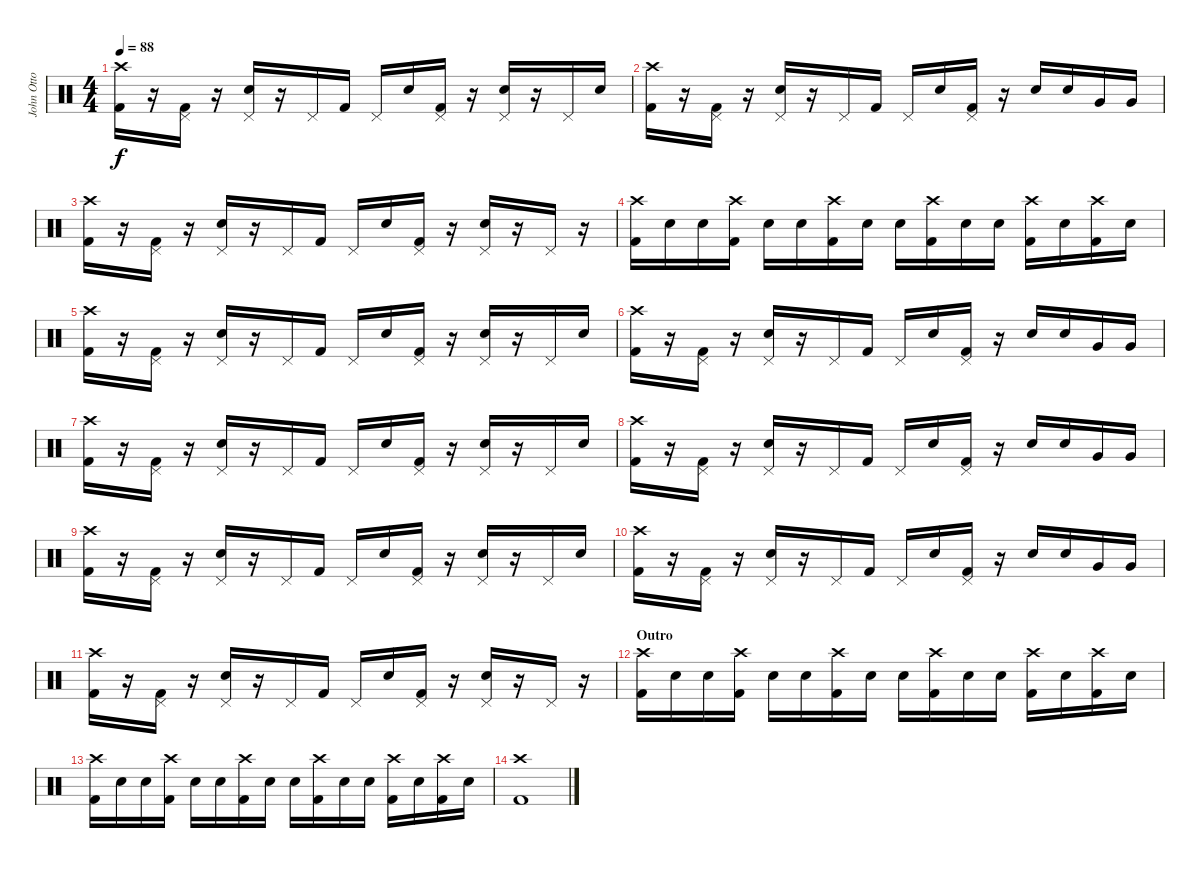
\track ("John Otto" "John Otto") {instrument percussion}
\staff {score}
\articulation defaults
\ts (4 4)
\tempo 88
\clef neutral
\ks c
("Crash high (hit)" "Kick (hit) 2").16{dy f} r.16 ("Pedal Hi-Hat (hit)" "Kick (hit) 2").16 r.16 ("Pedal Hi-Hat (hit)" "Snare (hit) 2").16 r.16 "Pedal Hi-Hat (hit)".16 "Kick (hit) 2".16 "Pedal Hi-Hat (hit)".16 "Snare (hit) 2".16 ("Pedal Hi-Hat (hit)" "Kick (hit) 2").16 r.16 ("Pedal Hi-Hat (hit)" "Snare (hit) 2").16 r.16 "Pedal Hi-Hat (hit)".16 "Electric Snare (hit)".16 |
("Crash high (hit)" "Kick (hit) 2").16 r.16 ("Pedal Hi-Hat (hit)" "Kick (hit) 2").16 r.16 ("Pedal Hi-Hat (hit)" "Snare (hit) 2").16 r.16 "Pedal Hi-Hat (hit)".16 "Kick (hit) 2".16 "Pedal Hi-Hat (hit)".16 "Snare (hit) 2".16 ("Pedal Hi-Hat (hit)" "Kick (hit) 2").16 r.16 "Electric Snare (hit)".16 "Electric Snare (hit)".16 "Very Low Tom (hit)".16 "Very Low Tom (hit)".16 |
("Crash high (hit)" "Kick (hit) 2").16 r.16 ("Pedal Hi-Hat (hit)" "Kick (hit) 2").16 r.16 ("Pedal Hi-Hat (hit)" "Snare (hit) 2").16 r.16 "Pedal Hi-Hat (hit)".16 "Kick (hit) 2".16 "Pedal Hi-Hat (hit)".16 "Snare (hit) 2".16 ("Pedal Hi-Hat (hit)" "Kick (hit) 2").16 r.16 ("Pedal Hi-Hat (hit)" "Snare (hit) 2").16 r.16 "Pedal Hi-Hat (hit)".16 r.16 |
("Crash high (hit)" "Kick (hit) 2").16 "Snare (hit) 2".16 "Snare (hit) 2".16 ("Crash high (hit)" "Kick (hit) 2").16 "Snare (hit) 2".16 "Snare (hit) 2".16 ("Crash high (hit)" "Kick (hit) 2").16 "Snare (hit) 2".16 "Snare (hit) 2".16 ("Crash high (hit)" "Kick (hit) 2").16 "Snare (hit) 2".16 "Snare (hit) 2".16 ("Crash high (hit)" "Kick (hit) 2").16 "Snare (hit) 2".16 ("Crash high (hit)" "Kick (hit) 2").16 "Snare (hit) 2".16 |
("Crash high (hit)" "Kick (hit) 2").16 r.16 ("Pedal Hi-Hat (hit)" "Kick (hit) 2").16 r.16 ("Pedal Hi-Hat (hit)" "Snare (hit) 2").16 r.16 "Pedal Hi-Hat (hit)".16 "Kick (hit) 2".16 "Pedal Hi-Hat (hit)".16 "Snare (hit) 2".16 ("Pedal Hi-Hat (hit)" "Kick (hit) 2").16 r.16 ("Pedal Hi-Hat (hit)" "Snare (hit) 2").16 r.16 "Pedal Hi-Hat (hit)".16 "Electric Snare (hit)".16 |
("Crash high (hit)" "Kick (hit) 2").16 r.16 ("Pedal Hi-Hat (hit)" "Kick (hit) 2").16 r.16 ("Pedal Hi-Hat (hit)" "Snare (hit) 2").16 r.16 "Pedal Hi-Hat (hit)".16 "Kick (hit) 2".16 "Pedal Hi-Hat (hit)".16 "Snare (hit) 2".16 ("Pedal Hi-Hat (hit)" "Kick (hit) 2").16 r.16 "Electric Snare (hit)".16 "Electric Snare (hit)".16 "Very Low Tom (hit)".16 "Very Low Tom (hit)".16 |
("Crash high (hit)" "Kick (hit) 2").16 r.16 ("Pedal Hi-Hat (hit)" "Kick (hit) 2").16 r.16 ("Pedal Hi-Hat (hit)" "Snare (hit) 2").16 r.16 "Pedal Hi-Hat (hit)".16 "Kick (hit) 2".16 "Pedal Hi-Hat (hit)".16 "Snare (hit) 2".16 ("Pedal Hi-Hat (hit)" "Kick (hit) 2").16 r.16 ("Pedal Hi-Hat (hit)" "Snare (hit) 2").16 r.16 "Pedal Hi-Hat (hit)".16 "Electric Snare (hit)".16 |
("Crash high (hit)" "Kick (hit) 2").16 r.16 ("Pedal Hi-Hat (hit)" "Kick (hit) 2").16 r.16 ("Pedal Hi-Hat (hit)" "Snare (hit) 2").16 r.16 "Pedal Hi-Hat (hit)".16 "Kick (hit) 2".16 "Pedal Hi-Hat (hit)".16 "Snare (hit) 2".16 ("Pedal Hi-Hat (hit)" "Kick (hit) 2").16 r.16 "Electric Snare (hit)".16 "Electric Snare (hit)".16 "Very Low Tom (hit)".16 "Very Low Tom (hit)".16 |
("Crash high (hit)" "Kick (hit) 2").16 r.16 ("Pedal Hi-Hat (hit)" "Kick (hit) 2").16 r.16 ("Pedal Hi-Hat (hit)" "Snare (hit) 2").16 r.16 "Pedal Hi-Hat (hit)".16 "Kick (hit) 2".16 "Pedal Hi-Hat (hit)".16 "Snare (hit) 2".16 ("Pedal Hi-Hat (hit)" "Kick (hit) 2").16 r.16 ("Pedal Hi-Hat (hit)" "Snare (hit) 2").16 r.16 "Pedal Hi-Hat (hit)".16 "Electric Snare (hit)".16 |
("Crash high (hit)" "Kick (hit) 2").16 r.16 ("Pedal Hi-Hat (hit)" "Kick (hit) 2").16 r.16 ("Pedal Hi-Hat (hit)" "Snare (hit) 2").16 r.16 "Pedal Hi-Hat (hit)".16 "Kick (hit) 2".16 "Pedal Hi-Hat (hit)".16 "Snare (hit) 2".16 ("Pedal Hi-Hat (hit)" "Kick (hit) 2").16 r.16 "Electric Snare (hit)".16 "Electric Snare (hit)".16 "Very Low Tom (hit)".16 "Very Low Tom (hit)".16 |
("Crash high (hit)" "Kick (hit) 2").16 r.16 ("Pedal Hi-Hat (hit)" "Kick (hit) 2").16 r.16 ("Pedal Hi-Hat (hit)" "Snare (hit) 2").16 r.16 "Pedal Hi-Hat (hit)".16 "Kick (hit) 2".16 "Pedal Hi-Hat (hit)".16 "Snare (hit) 2".16 ("Pedal Hi-Hat (hit)" "Kick (hit) 2").16 r.16 ("Pedal Hi-Hat (hit)" "Snare (hit) 2").16 r.16 "Pedal Hi-Hat (hit)".16 r.16 |
\section ("" "Outro")
("Crash high (hit)" "Kick (hit) 2").16 "Snare (hit) 2".16 "Snare (hit) 2".16 ("Crash high (hit)" "Kick (hit) 2").16 "Snare (hit) 2".16 "Snare (hit) 2".16 ("Crash high (hit)" "Kick (hit) 2").16 "Snare (hit) 2".16 "Snare (hit) 2".16 ("Crash high (hit)" "Kick (hit) 2").16 "Snare (hit) 2".16 "Snare (hit) 2".16 ("Crash high (hit)" "Kick (hit) 2").16 "Snare (hit) 2".16 ("Crash high (hit)" "Kick (hit) 2").16 "Snare (hit) 2".16 |
("Crash high (hit)" "Kick (hit) 2").16 "Snare (hit) 2".16 "Snare (hit) 2".16 ("Crash high (hit)" "Kick (hit) 2").16 "Snare (hit) 2".16 "Snare (hit) 2".16 ("Crash high (hit)" "Kick (hit) 2").16 "Snare (hit) 2".16 "Snare (hit) 2".16 ("Crash high (hit)" "Kick (hit) 2").16 "Snare (hit) 2".16 "Snare (hit) 2".16 ("Crash high (hit)" "Kick (hit) 2").16 "Snare (hit) 2".16 ("Crash high (hit)" "Kick (hit) 2").16 "Snare (hit) 2".16 |
("Crash high (hit)" "Kick (hit) 2").1
